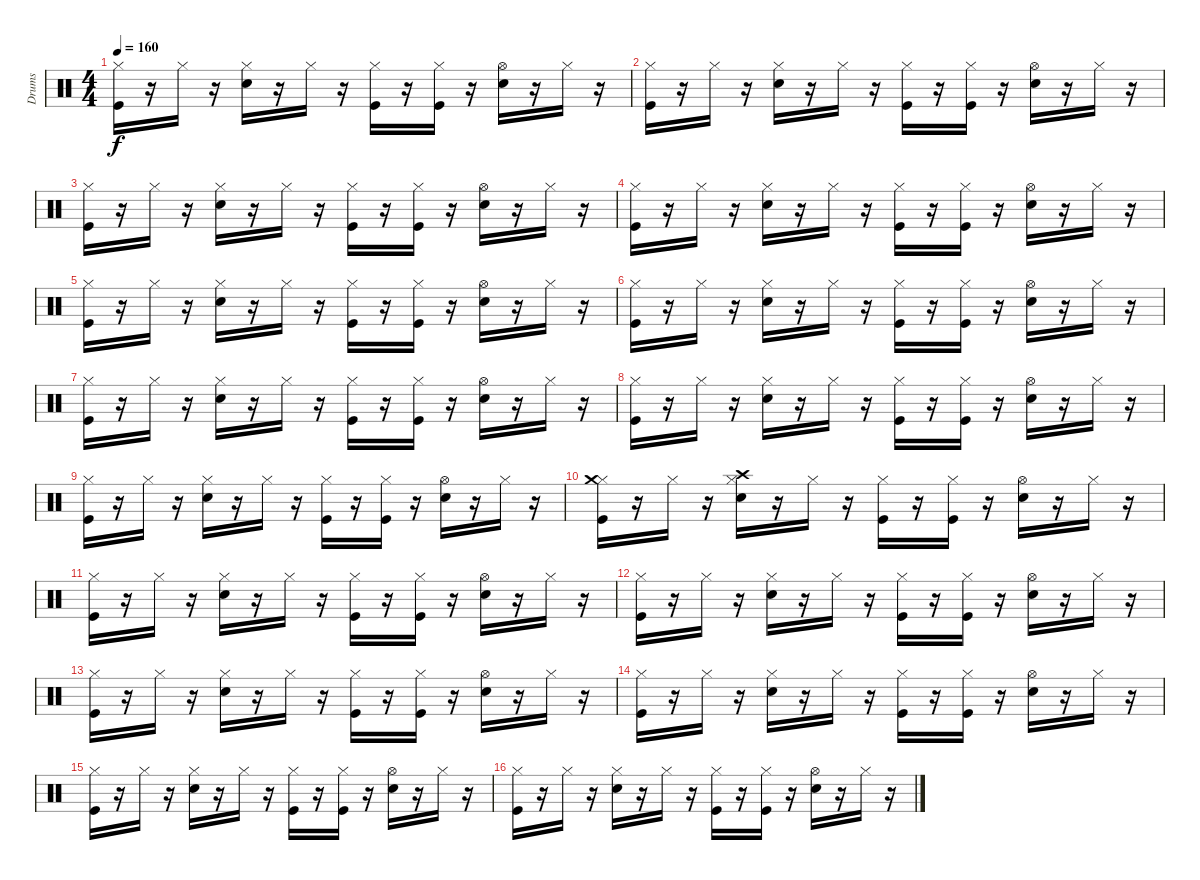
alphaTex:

\track ("Drums" "Drums") {instrument percussion}
\staff {score}
\articulation defaults
\ts (4 4)
\tempo 160
\clef neutral
\ks c
("Hi-Hat (closed)" "Kick (hit)").16{dy f} r.16 "Hi-Hat (closed)".16 r.16 ("Hi-Hat (closed)" "Snare (hit) 2").16 r.16 "Hi-Hat (closed)".16 r.16 ("Hi-Hat (closed)" "Kick (hit)").16 r.16 ("Kick (hit)" "Hi-Hat (closed)").16 r.16 ("Hi-Hat (open)" "Snare (hit) 2").16 r.16 "Hi-Hat (closed)".16 r.16 |
("Hi-Hat (closed)" "Kick (hit)").16 r.16 "Hi-Hat (closed)".16 r.16 ("Hi-Hat (closed)" "Snare (hit) 2").16 r.16 "Hi-Hat (closed)".16 r.16 ("Hi-Hat (closed)" "Kick (hit)").16 r.16 ("Kick (hit)" "Hi-Hat (closed)").16 r.16 ("Hi-Hat (open)" "Snare (hit) 2").16 r.16 "Hi-Hat (closed)".16 r.16 |
("Hi-Hat (closed)" "Kick (hit)").16 r.16 "Hi-Hat (closed)".16 r.16 ("Hi-Hat (closed)" "Snare (hit) 2").16 r.16 "Hi-Hat (closed)".16 r.16 ("Hi-Hat (closed)" "Kick (hit)").16 r.16 ("Kick (hit)" "Hi-Hat (closed)").16 r.16 ("Hi-Hat (open)" "Snare (hit) 2").16 r.16 "Hi-Hat (closed)".16 r.16 |
("Hi-Hat (closed)" "Kick (hit)").16 r.16 "Hi-Hat (closed)".16 r.16 ("Hi-Hat (closed)" "Snare (hit) 2").16 r.16 "Hi-Hat (closed)".16 r.16 ("Hi-Hat (closed)" "Kick (hit)").16 r.16 ("Kick (hit)" "Hi-Hat (closed)").16 r.16 ("Hi-Hat (open)" "Snare (hit) 2").16 r.16 "Hi-Hat (closed)".16 r.16 |
("Hi-Hat (closed)" "Kick (hit)").16 r.16 "Hi-Hat (closed)".16 r.16 ("Hi-Hat (closed)" "Snare (hit) 2").16 r.16 "Hi-Hat (closed)".16 r.16 ("Hi-Hat (closed)" "Kick (hit)").16 r.16 ("Kick (hit)" "Hi-Hat (closed)").16 r.16 ("Hi-Hat (open)" "Snare (hit) 2").16 r.16 "Hi-Hat (closed)".16 r.16 |
("Hi-Hat (closed)" "Kick (hit)").16 r.16 "Hi-Hat (closed)".16 r.16 ("Hi-Hat (closed)" "Snare (hit) 2").16 r.16 "Hi-Hat (closed)".16 r.16 ("Hi-Hat (closed)" "Kick (hit)").16 r.16 ("Kick (hit)" "Hi-Hat (closed)").16 r.16 ("Hi-Hat (open)" "Snare (hit) 2").16 r.16 "Hi-Hat (closed)".16 r.16 |
("Hi-Hat (closed)" "Kick (hit)").16 r.16 "Hi-Hat (closed)".16 r.16 ("Hi-Hat (closed)" "Snare (hit) 2").16 r.16 "Hi-Hat (closed)".16 r.16 ("Hi-Hat (closed)" "Kick (hit)").16 r.16 ("Kick (hit)" "Hi-Hat (closed)").16 r.16 ("Hi-Hat (open)" "Snare (hit) 2").16 r.16 "Hi-Hat (closed)".16 r.16 |
("Hi-Hat (closed)" "Kick (hit)").16 r.16 "Hi-Hat (closed)".16 r.16 ("Hi-Hat (closed)" "Snare (hit) 2").16 r.16 "Hi-Hat (closed)".16 r.16 ("Hi-Hat (closed)" "Kick (hit)").16 r.16 ("Kick (hit)" "Hi-Hat (closed)").16 r.16 ("Hi-Hat (open)" "Snare (hit) 2").16 r.16 "Hi-Hat (closed)".16 r.16 |
("Hi-Hat (closed)" "Kick (hit)").16 r.16 "Hi-Hat (closed)".16 r.16 ("Hi-Hat (closed)" "Snare (hit) 2").16 r.16 "Hi-Hat (closed)".16 r.16 ("Hi-Hat (closed)" "Kick (hit)").16 r.16 ("Kick (hit)" "Hi-Hat (closed)").16 r.16 ("Hi-Hat (open)" "Snare (hit) 2").16 r.16 "Hi-Hat (closed)".16 r.16 |
("Hi-Hat (closed)" "Kick (hit)" "Crash medium (hit)").16{volume 13} r.16 "Hi-Hat (closed)".16 r.16 ("Hi-Hat (closed)" "Snare (hit) 2" "Crash high (hit)").16 r.16 "Hi-Hat (closed)".16 r.16 ("Hi-Hat (closed)" "Kick (hit)").16 r.16 ("Kick (hit)" "Hi-Hat (closed)").16 r.16 ("Hi-Hat (open)" "Snare (hit) 2").16 r.16 "Hi-Hat (closed)".16 r.16 |
("Hi-Hat (closed)" "Kick (hit)").16 r.16 "Hi-Hat (closed)".16 r.16 ("Hi-Hat (closed)" "Snare (hit) 2").16 r.16 "Hi-Hat (closed)".16 r.16 ("Hi-Hat (closed)" "Kick (hit)").16 r.16 ("Kick (hit)" "Hi-Hat (closed)").16 r.16 ("Hi-Hat (open)" "Snare (hit) 2").16 r.16 "Hi-Hat (closed)".16 r.16 |
("Hi-Hat (closed)" "Kick (hit)").16{volume 10} r.16 "Hi-Hat (closed)".16 r.16 ("Hi-Hat (closed)" "Snare (hit) 2").16 r.16 "Hi-Hat (closed)".16 r.16 ("Hi-Hat (closed)" "Kick (hit)").16 r.16 ("Kick (hit)" "Hi-Hat (closed)").16 r.16 ("Hi-Hat (open)" "Snare (hit) 2").16 r.16 "Hi-Hat (closed)".16 r.16 |
("Hi-Hat (closed)" "Kick (hit)").16 r.16 "Hi-Hat (closed)".16 r.16 ("Hi-Hat (closed)" "Snare (hit) 2").16 r.16 "Hi-Hat (closed)".16 r.16 ("Hi-Hat (closed)" "Kick (hit)").16 r.16 ("Kick (hit)" "Hi-Hat (closed)").16 r.16 ("Hi-Hat (open)" "Snare (hit) 2").16 r.16 "Hi-Hat (closed)".16 r.16 |
("Hi-Hat (closed)" "Kick (hit)").16{volume 9} r.16 "Hi-Hat (closed)".16 r.16 ("Hi-Hat (closed)" "Snare (hit) 2").16 r.16 "Hi-Hat (closed)".16 r.16 ("Hi-Hat (closed)" "Kick (hit)").16 r.16 ("Kick (hit)" "Hi-Hat (closed)").16 r.16 ("Hi-Hat (open)" "Snare (hit) 2").16 r.16 "Hi-Hat (closed)".16 r.16 |
("Hi-Hat (closed)" "Kick (hit)").16 r.16 "Hi-Hat (closed)".16 r.16 ("Hi-Hat (closed)" "Snare (hit) 2").16 r.16 "Hi-Hat (closed)".16 r.16 ("Hi-Hat (closed)" "Kick (hit)").16 r.16 ("Kick (hit)" "Hi-Hat (closed)").16 r.16 ("Hi-Hat (open)" "Snare (hit) 2").16 r.16 "Hi-Hat (closed)".16 r.16 |
("Hi-Hat (closed)" "Kick (hit)").16{volume 6} r.16 "Hi-Hat (closed)".16 r.16 ("Hi-Hat (closed)" "Snare (hit) 2").16 r.16 "Hi-Hat (closed)".16 r.16 ("Hi-Hat (closed)" "Kick (hit)").16 r.16 ("Kick (hit)" "Hi-Hat (closed)").16 r.16 ("Hi-Hat (open)" "Snare (hit) 2").16 r.16 "Hi-Hat (closed)".16 r.16
